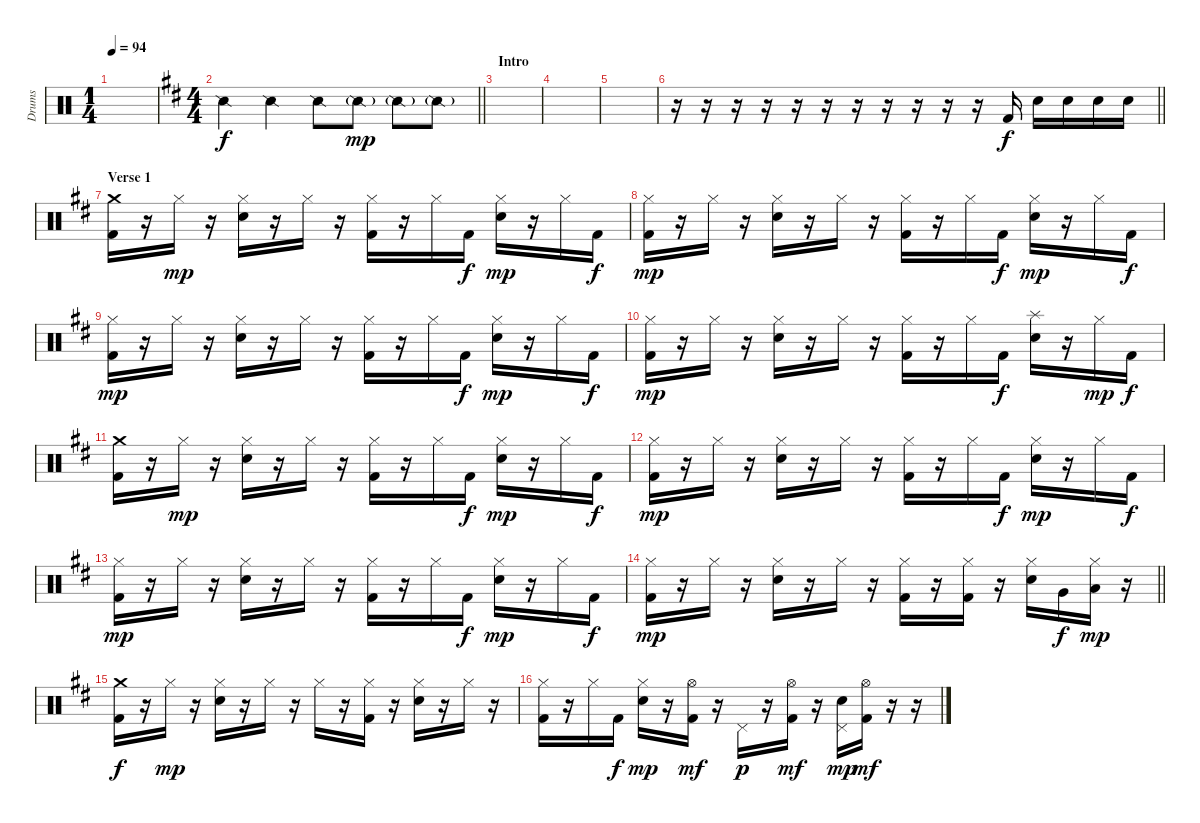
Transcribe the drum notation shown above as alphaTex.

\track ("Drums" "Drums") {instrument percussion}
\staff {score}
\articulation defaults
\ts (1 4)
\tempo 94
\clef neutral
\ks c
|
\ts (4 4)
\barLineRight lightlight
\ks d "Snare (side stick) 2".4 "Snare (side stick) 2".4 "Snare (side stick) 2".8 "Snare (side stick) 2"{g}.8{dy mp} "Snare (side stick) 2"{g}.8 "Snare (side stick) 2"{g}.8
|
\section ("" "Intro")
|
|
|
\barLineRight lightlight
r.16 r.16 r.16 r.16 r.16 r.16 r.16 r.16 r.16 r.16 r.16 "Kick (hit) 2".16{dy f} "Snare (hit) 2".16 "Snare (hit) 2".16 "Snare (hit) 2".16 "Snare (hit) 2".16 |
\section ("" "Verse 1")
("Crash medium (hit)" "Kick (hit) 2").16 r.16 "Hi-Hat (closed)".16{dy mp} r.16 ("Hi-Hat (closed)" "Snare (hit) 2").16 r.16 "Hi-Hat (closed)".16 r.16 ("Hi-Hat (closed)" "Kick (hit) 2").16 r.16 "Hi-Hat (closed)".16 "Kick (hit) 2".16{dy f} ("Hi-Hat (closed)" "Snare (hit) 2").16{dy mp} r.16 "Hi-Hat (closed)".16 "Kick (hit) 2".16{dy f} |
("Hi-Hat (closed)" "Kick (hit) 2").16{dy mp} r.16 "Hi-Hat (closed)".16 r.16 ("Hi-Hat (closed)" "Snare (hit) 2").16 r.16 "Hi-Hat (closed)".16 r.16 ("Hi-Hat (closed)" "Kick (hit) 2").16 r.16 "Hi-Hat (closed)".16 "Kick (hit) 2".16{dy f} ("Hi-Hat (closed)" "Snare (hit) 2").16{dy mp} r.16 "Hi-Hat (closed)".16 "Kick (hit) 2".16{dy f} |
("Hi-Hat (closed)" "Kick (hit) 2").16{dy mp} r.16 "Hi-Hat (closed)".16 r.16 ("Hi-Hat (closed)" "Snare (hit) 2").16 r.16 "Hi-Hat (closed)".16 r.16 ("Hi-Hat (closed)" "Kick (hit) 2").16 r.16 "Hi-Hat (closed)".16 "Kick (hit) 2".16{dy f} ("Hi-Hat (closed)" "Snare (hit) 2").16{dy mp} r.16 "Hi-Hat (closed)".16 "Kick (hit) 2".16{dy f} |
("Hi-Hat (closed)" "Kick (hit) 2").16{dy mp} r.16 "Hi-Hat (closed)".16 r.16 ("Hi-Hat (closed)" "Snare (hit) 2").16 r.16 "Hi-Hat (closed)".16 r.16 ("Hi-Hat (closed)" "Kick (hit) 2").16 r.16 "Hi-Hat (closed)".16 "Kick (hit) 2".16{dy f} ("Splash (hit)" "Snare (hit) 2").16 r.16 "Hi-Hat (closed)".16{dy mp} "Kick (hit) 2".16{dy f} |
("Crash medium (hit)" "Kick (hit) 2").16 r.16 "Hi-Hat (closed)".16{dy mp} r.16 ("Hi-Hat (closed)" "Snare (hit) 2").16 r.16 "Hi-Hat (closed)".16 r.16 ("Hi-Hat (closed)" "Kick (hit) 2").16 r.16 "Hi-Hat (closed)".16 "Kick (hit) 2".16{dy f} ("Hi-Hat (closed)" "Snare (hit) 2").16{dy mp} r.16 "Hi-Hat (closed)".16 "Kick (hit) 2".16{dy f} |
("Hi-Hat (closed)" "Kick (hit) 2").16{dy mp} r.16 "Hi-Hat (closed)".16 r.16 ("Hi-Hat (closed)" "Snare (hit) 2").16 r.16 "Hi-Hat (closed)".16 r.16 ("Hi-Hat (closed)" "Kick (hit) 2").16 r.16 "Hi-Hat (closed)".16 "Kick (hit) 2".16{dy f} ("Hi-Hat (closed)" "Snare (hit) 2").16{dy mp} r.16 "Hi-Hat (closed)".16 "Kick (hit) 2".16{dy f} |
("Hi-Hat (closed)" "Kick (hit) 2").16{dy mp} r.16 "Hi-Hat (closed)".16 r.16 ("Hi-Hat (closed)" "Snare (hit) 2").16 r.16 "Hi-Hat (closed)".16 r.16 ("Hi-Hat (closed)" "Kick (hit) 2").16 r.16 "Hi-Hat (closed)".16 "Kick (hit) 2".16{dy f} ("Hi-Hat (closed)" "Snare (hit) 2").16{dy mp} r.16 "Hi-Hat (closed)".16 "Kick (hit) 2".16{dy f} |
\barLineRight lightlight
("Hi-Hat (closed)" "Kick (hit) 2").16{dy mp} r.16 "Hi-Hat (closed)".16 r.16 ("Hi-Hat (closed)" "Snare (hit) 2").16 r.16 "Hi-Hat (closed)".16 r.16 ("Hi-Hat (closed)" "Kick (hit) 2").16 r.16 ("Hi-Hat (closed)" "Kick (hit) 2").16 r.16 ("Hi-Hat (closed)" "Snare (hit) 2").16 "Very Low Tom (hit)".16{dy f} ("Hi-Hat (closed)" "Low Floor Tom (hit)").16{dy mp} r.16 |
("Crash medium (hit)" "Kick (hit) 2").16{dy f} r.16 "Hi-Hat (closed)".16{dy mp} r.16 ("Hi-Hat (closed)" "Snare (hit) 2").16 r.16 "Hi-Hat (closed)".16 r.16 "Hi-Hat (closed)".16 r.16 ("Hi-Hat (closed)" "Kick (hit) 2").16 r.16 ("Hi-Hat (closed)" "Snare (hit) 2").16 r.16 "Hi-Hat (closed)".16 r.16 |
("Hi-Hat (closed)" "Kick (hit) 2").16 r.16 "Hi-Hat (closed)".16 "Kick (hit) 2".16{dy f} ("Hi-Hat (closed)" "Snare (hit) 2").16{dy mp} r.16 ("Hi-Hat (open)" "Kick (hit) 2").16{dy mf} r.16 "Pedal Hi-Hat (hit)".16{dy p} r.16 ("Hi-Hat (open)" "Kick (hit) 2").16{dy mf} r.16 ("Pedal Hi-Hat (hit)" "Snare (hit) 2").16{dy mp} ("Hi-Hat (open)" "Kick (hit) 2").16{dy mf} r.16 r.16
